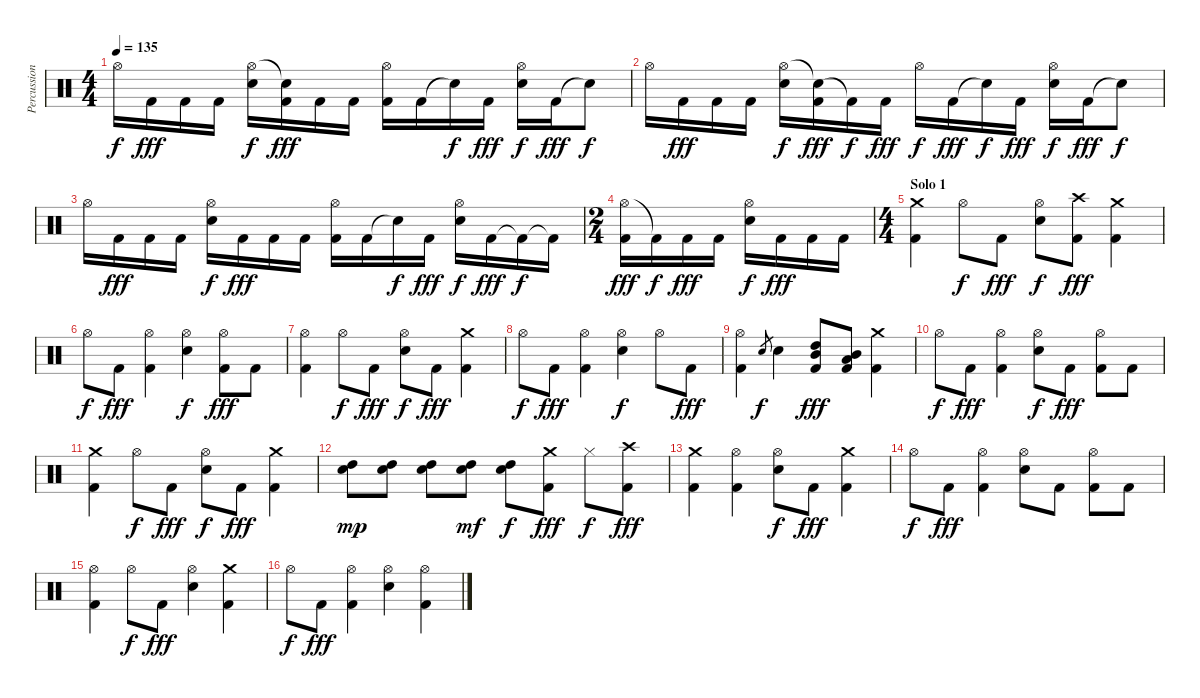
\track ("Percussion" "Percussion") {instrument percussion}
\staff {score}
\articulation defaults
\ts (4 4)
\tempo 135
\clef neutral
\ks c "Hi-Hat (open)".16{dy f} "Kick (hit) 2".16{dy fff} "Kick (hit) 2".16 "Kick (hit) 2".16
("Hi-Hat (open)" "Electric Snare (hit)").16{dy f} ("Snare (hit)"{t} "Kick (hit) 2").16{dy fff} "Kick (hit) 2".16 "Kick (hit) 2".16 ("Hi-Hat (open)" "Kick (hit) 2").16 "Kick (hit) 2".16 "Snare (hit)"{t}.16{dy f} "Kick (hit) 2".16{dy fff} ("Hi-Hat (open)" "Electric Snare (hit)").16{dy f} "Kick (hit) 2".16{dy fff} "Snare (hit)"{t}.8{dy f} |
"Hi-Hat (open)".16 "Kick (hit) 2".16{dy fff} "Kick (hit) 2".16 "Kick (hit) 2".16 ("Hi-Hat (open)" "Electric Snare (hit)").16{dy f} ("Snare (hit)"{t} "Kick (hit) 2").16{dy fff} "Kick (hit) 2"{t}.16{dy f} "Kick (hit) 2".16{dy fff} "Hi-Hat (open)".16{dy f} "Kick (hit) 2".16{dy fff} "Snare (hit)"{t}.16{dy f} "Kick (hit) 2".16{dy fff} ("Hi-Hat (open)" "Electric Snare (hit)").16{dy f} "Kick (hit) 2".16{dy fff} "Snare (hit)"{t}.8{dy f} |
"Hi-Hat (open)".16 "Kick (hit) 2".16{dy fff} "Kick (hit) 2".16 "Kick (hit) 2".16 ("Hi-Hat (open)" "Electric Snare (hit)").16{dy f} "Kick (hit) 2".16{dy fff} "Kick (hit) 2".16 "Kick (hit) 2".16 ("Hi-Hat (open)" "Kick (hit) 2").16 "Kick (hit) 2".16 "Snare (hit)"{t}.16{dy f} "Kick (hit) 2".16{dy fff} ("Hi-Hat (open)" "Electric Snare (hit)").16{dy f} "Kick (hit) 2".16{dy fff} "Kick (hit) 2"{t}.16{dy f} "Kick (hit) 2"{t}.16 |
\ts (2 4)
("Hi-Hat (open)" "Kick (hit) 2").16{dy fff} "Kick (hit) 2"{t}.16{dy f} "Kick (hit) 2".16{dy fff} "Kick (hit) 2".16 ("Hi-Hat (open)" "Electric Snare (hit)").16{dy f} "Kick (hit) 2".16{dy fff} "Kick (hit) 2".16 "Kick (hit) 2".16 |
\ts (4 4)
\section ("" "Solo 1")
("Crash medium (hit)" "Kick (hit) 2").4 "Hi-Hat (open)".8{dy f} "Kick (hit) 2".8{dy fff} ("Hi-Hat (open)" "Electric Snare (hit)").8{dy f} ("Crash high (hit)" "Kick (hit) 2").8{dy fff} ("Crash medium (hit)" "Kick (hit) 2").4 |
"Hi-Hat (open)".8{dy f} "Kick (hit) 2".8{dy fff} ("Hi-Hat (open)" "Kick (hit) 2").4 ("Hi-Hat (open)" "Electric Snare (hit)").4{dy f} ("Hi-Hat (open)" "Kick (hit) 2").8{dy fff} "Kick (hit) 2".8 |
("Hi-Hat (open)" "Kick (hit) 2").4 "Hi-Hat (open)".8{dy f} "Kick (hit) 2".8{dy fff} ("Hi-Hat (open)" "Electric Snare (hit)").8{dy f} "Kick (hit) 2".8{dy fff} ("Crash medium (hit)" "Kick (hit) 2").4 |
"Hi-Hat (open)".8{dy f} "Kick (hit) 2".8{dy fff} ("Hi-Hat (open)" "Kick (hit) 2").4 ("Hi-Hat (open)" "Electric Snare (hit)").4{dy f} "Hi-Hat (open)".8 "Kick (hit) 2".8{dy fff} |
("Hi-Hat (open)" "Kick (hit) 2").4 "Electric Snare (hit)".8{gr dy f} "Electric Snare (hit)".4 ("High Tom (hit)" "Mid Tom (hit)" "Kick (hit) 2").8{dy fff} ("Mid Tom (hit)" "Low Tom (hit)" "Kick (hit) 2").8 ("Crash medium (hit)" "Kick (hit) 2").4 |
"Hi-Hat (open)".8{dy f} "Kick (hit) 2".8{dy fff} ("Hi-Hat (open)" "Kick (hit) 2").4 ("Hi-Hat (open)" "Electric Snare (hit)").8{dy f} "Kick (hit) 2".8{dy fff} ("Hi-Hat (open)" "Kick (hit) 2").8 "Kick (hit) 2".8 |
("Crash medium (hit)" "Kick (hit) 2").4 "Hi-Hat (open)".8{dy f} "Kick (hit) 2".8{dy fff} ("Hi-Hat (open)" "Electric Snare (hit)").8{dy f} "Kick (hit) 2".8{dy fff} ("Crash medium (hit)" "Kick (hit) 2").4 |
("Electric Snare (hit)" "High Tom (hit)").8{dy mp} ("Electric Snare (hit)" "High Tom (hit)").8 ("Electric Snare (hit)" "High Tom (hit)").8 ("Electric Snare (hit)" "High Tom (hit)").8{dy mf} ("Electric Snare (hit)" "High Tom (hit)").8{dy f} ("Crash medium (hit)" "Kick (hit) 2").8{dy fff} "Hi-Hat (closed)".8{dy f} ("Crash high (hit)" "Kick (hit) 2").8{dy fff} |
("Crash medium (hit)" "Kick (hit) 2").4 ("Hi-Hat (open)" "Kick (hit) 2").4 ("Hi-Hat (open)" "Electric Snare (hit)").8{dy f} "Kick (hit) 2".8{dy fff} ("Crash medium (hit)" "Kick (hit) 2").4 |
"Hi-Hat (open)".8{dy f} "Kick (hit) 2".8{dy fff} ("Hi-Hat (open)" "Kick (hit) 2").4 ("Hi-Hat (open)" "Electric Snare (hit)").8 "Kick (hit) 2".8 ("Hi-Hat (open)" "Kick (hit) 2").8 "Kick (hit) 2".8 |
("Hi-Hat (open)" "Kick (hit) 2").4 "Hi-Hat (open)".8{dy f} "Kick (hit) 2".8{dy fff} ("Hi-Hat (open)" "Electric Snare (hit)").4 ("Crash medium (hit)" "Kick (hit) 2").4 |
"Hi-Hat (open)".8{dy f} "Kick (hit) 2".8{dy fff} ("Hi-Hat (open)" "Kick (hit) 2").4 ("Hi-Hat (open)" "Electric Snare (hit)").4 ("Hi-Hat (open)" "Kick (hit) 2").4
